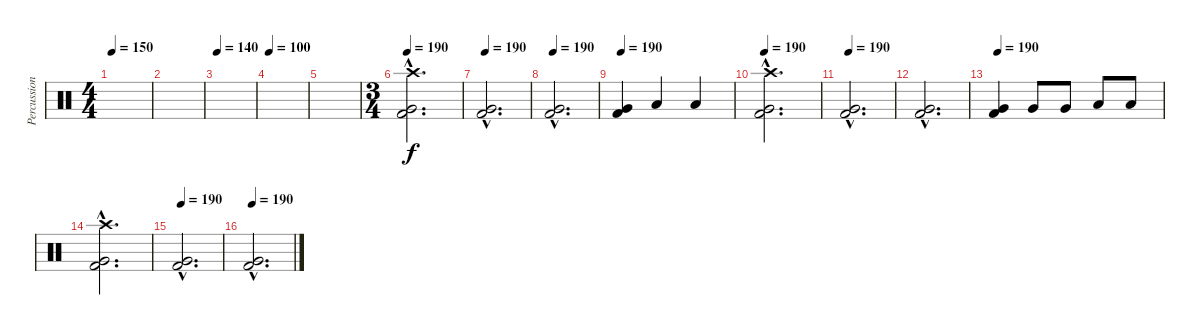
\track ("Percussion" "Percussion") {instrument percussion}
\staff {score}
\articulation defaults
\ts (4 4)
\tempo 150
\clef neutral
\ks c
|
|
\tempo 140
|
\tempo 100
|
|
\ts (3 4)
\tempo 190
("Crash high (hit)"{hac} "Very Low Tom (hit)"{hac} "Kick (hit) 2"{hac}).2{d} |
\tempo 190
("Very Low Tom (hit)"{hac} "Kick (hit) 2"{hac}).2{d} |
\tempo 190
("Very Low Tom (hit)"{hac} "Kick (hit) 2"{hac}).2{d} |
\tempo 190
("Very Low Tom (hit)" "Kick (hit) 2").4 "Low Floor Tom (hit)".4 "Low Floor Tom (hit)".4 |
\tempo 190
("Crash high (hit)"{hac} "Very Low Tom (hit)"{hac} "Kick (hit) 2"{hac}).2{d} |
\tempo 190
("Very Low Tom (hit)"{hac} "Kick (hit) 2"{hac}).2{d} |
("Very Low Tom (hit)"{hac} "Kick (hit) 2"{hac}).2{d} |
\tempo 190
("Very Low Tom (hit)" "Kick (hit) 2").4 "Very Low Tom (hit)".8 "Very Low Tom (hit)".8 "Low Floor Tom (hit)".8 "Low Floor Tom (hit)".8 |
("Crash high (hit)"{hac} "Very Low Tom (hit)"{hac} "Kick (hit) 2"{hac}).2{d} |
\tempo 190
("Very Low Tom (hit)"{hac} "Kick (hit) 2"{hac}).2{d} |
\tempo 190
("Very Low Tom (hit)"{hac} "Kick (hit) 2"{hac}).2{d}
